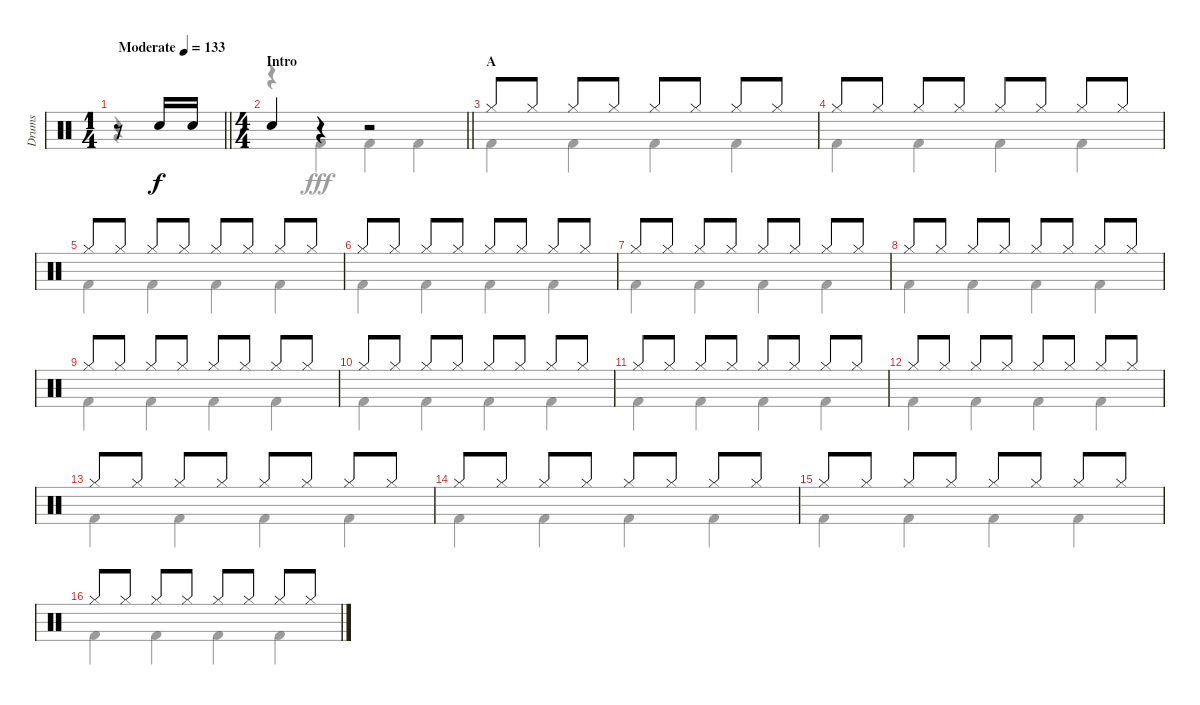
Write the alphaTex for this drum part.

\track ("Drums" "Drums") {instrument percussion}
\staff {score}
\articulation defaults
\voice
\ts (1 4)
\tempo (133 "Moderate")
\clef neutral
\barLineRight lightlight
\ks c
r.8{dy f} "Electric Snare (hit)".16 "Electric Snare (hit)".16 |
\ts (4 4)
\section ("" "Intro")
\barLineRight lightlight "Electric Snare (hit)".4
r.4 r.2 |
\section ("" "A")
"Hi-Hat (closed)".8 "Hi-Hat (closed)".8 "Hi-Hat (closed)".8 "Hi-Hat (closed)".8 "Hi-Hat (closed)".8 "Hi-Hat (closed)".8 "Hi-Hat (closed)".8 "Hi-Hat (closed)".8 |
"Hi-Hat (closed)".8 "Hi-Hat (closed)".8 "Hi-Hat (closed)".8 "Hi-Hat (closed)".8 "Hi-Hat (closed)".8 "Hi-Hat (closed)".8 "Hi-Hat (closed)".8 "Hi-Hat (closed)".8 |
"Hi-Hat (closed)".8 "Hi-Hat (closed)".8 "Hi-Hat (closed)".8 "Hi-Hat (closed)".8 "Hi-Hat (closed)".8 "Hi-Hat (closed)".8 "Hi-Hat (closed)".8 "Hi-Hat (closed)".8 |
"Hi-Hat (closed)".8 "Hi-Hat (closed)".8 "Hi-Hat (closed)".8 "Hi-Hat (closed)".8 "Hi-Hat (closed)".8 "Hi-Hat (closed)".8 "Hi-Hat (closed)".8 "Hi-Hat (closed)".8 |
"Hi-Hat (closed)".8 "Hi-Hat (closed)".8 "Hi-Hat (closed)".8 "Hi-Hat (closed)".8 "Hi-Hat (closed)".8 "Hi-Hat (closed)".8 "Hi-Hat (closed)".8 "Hi-Hat (closed)".8 |
"Hi-Hat (closed)".8 "Hi-Hat (closed)".8 "Hi-Hat (closed)".8 "Hi-Hat (closed)".8 "Hi-Hat (closed)".8 "Hi-Hat (closed)".8 "Hi-Hat (closed)".8 "Hi-Hat (closed)".8 |
"Hi-Hat (closed)".8 "Hi-Hat (closed)".8 "Hi-Hat (closed)".8 "Hi-Hat (closed)".8 "Hi-Hat (closed)".8 "Hi-Hat (closed)".8 "Hi-Hat (closed)".8 "Hi-Hat (closed)".8 |
"Hi-Hat (closed)".8 "Hi-Hat (closed)".8 "Hi-Hat (closed)".8 "Hi-Hat (closed)".8 "Hi-Hat (closed)".8 "Hi-Hat (closed)".8 "Hi-Hat (closed)".8 "Hi-Hat (closed)".8 |
"Hi-Hat (closed)".8 "Hi-Hat (closed)".8 "Hi-Hat (closed)".8 "Hi-Hat (closed)".8 "Hi-Hat (closed)".8 "Hi-Hat (closed)".8 "Hi-Hat (closed)".8 "Hi-Hat (closed)".8 |
"Hi-Hat (closed)".8 "Hi-Hat (closed)".8 "Hi-Hat (closed)".8 "Hi-Hat (closed)".8 "Hi-Hat (closed)".8 "Hi-Hat (closed)".8 "Hi-Hat (closed)".8 "Hi-Hat (closed)".8 |
"Hi-Hat (closed)".8 "Hi-Hat (closed)".8 "Hi-Hat (closed)".8 "Hi-Hat (closed)".8 "Hi-Hat (closed)".8 "Hi-Hat (closed)".8 "Hi-Hat (closed)".8 "Hi-Hat (closed)".8 |
"Hi-Hat (closed)".8 "Hi-Hat (closed)".8 "Hi-Hat (closed)".8 "Hi-Hat (closed)".8 "Hi-Hat (closed)".8 "Hi-Hat (closed)".8 "Hi-Hat (closed)".8 "Hi-Hat (closed)".8 |
"Hi-Hat (closed)".8 "Hi-Hat (closed)".8 "Hi-Hat (closed)".8 "Hi-Hat (closed)".8 "Hi-Hat (closed)".8 "Hi-Hat (closed)".8 "Hi-Hat (closed)".8 "Hi-Hat (closed)".8 |
"Hi-Hat (closed)".8 "Hi-Hat (closed)".8 "Hi-Hat (closed)".8 "Hi-Hat (closed)".8 "Hi-Hat (closed)".8 "Hi-Hat (closed)".8 "Hi-Hat (closed)".8 "Hi-Hat (closed)".8
\voice
\clef neutral
\ottava regular
\simile none
\barLineRight lightlight
\ks c
r.4{dy fff} |
\barLineRight lightlight
r.4 "Kick (hit) 2".4 "Kick (hit) 2".4 "Kick (hit) 2".4 |
"Kick (hit) 2".4 "Kick (hit) 2".4 "Kick (hit) 2".4 "Kick (hit) 2".4 |
"Kick (hit) 2".4 "Kick (hit) 2".4 "Kick (hit) 2".4 "Kick (hit) 2".4 |
"Kick (hit) 2".4 "Kick (hit) 2".4 "Kick (hit) 2".4 "Kick (hit) 2".4 |
"Kick (hit) 2".4 "Kick (hit) 2".4 "Kick (hit) 2".4 "Kick (hit) 2".4 |
"Kick (hit) 2".4 "Kick (hit) 2".4 "Kick (hit) 2".4 "Kick (hit) 2".4 |
"Kick (hit) 2".4 "Kick (hit) 2".4 "Kick (hit) 2".4 "Kick (hit) 2".4 |
"Kick (hit) 2".4 "Kick (hit) 2".4 "Kick (hit) 2".4 "Kick (hit) 2".4 |
"Kick (hit) 2".4 "Kick (hit) 2".4 "Kick (hit) 2".4 "Kick (hit) 2".4 |
"Kick (hit) 2".4 "Kick (hit) 2".4 "Kick (hit) 2".4 "Kick (hit) 2".4 |
"Kick (hit) 2".4 "Kick (hit) 2".4 "Kick (hit) 2".4 "Kick (hit) 2".4 |
"Kick (hit) 2".4 "Kick (hit) 2".4 "Kick (hit) 2".4 "Kick (hit) 2".4 |
"Kick (hit) 2".4 "Kick (hit) 2".4 "Kick (hit) 2".4 "Kick (hit) 2".4 |
"Kick (hit) 2".4 "Kick (hit) 2".4 "Kick (hit) 2".4 "Kick (hit) 2".4 |
"Kick (hit) 2".4 "Kick (hit) 2".4 "Kick (hit) 2".4 "Kick (hit) 2".4
